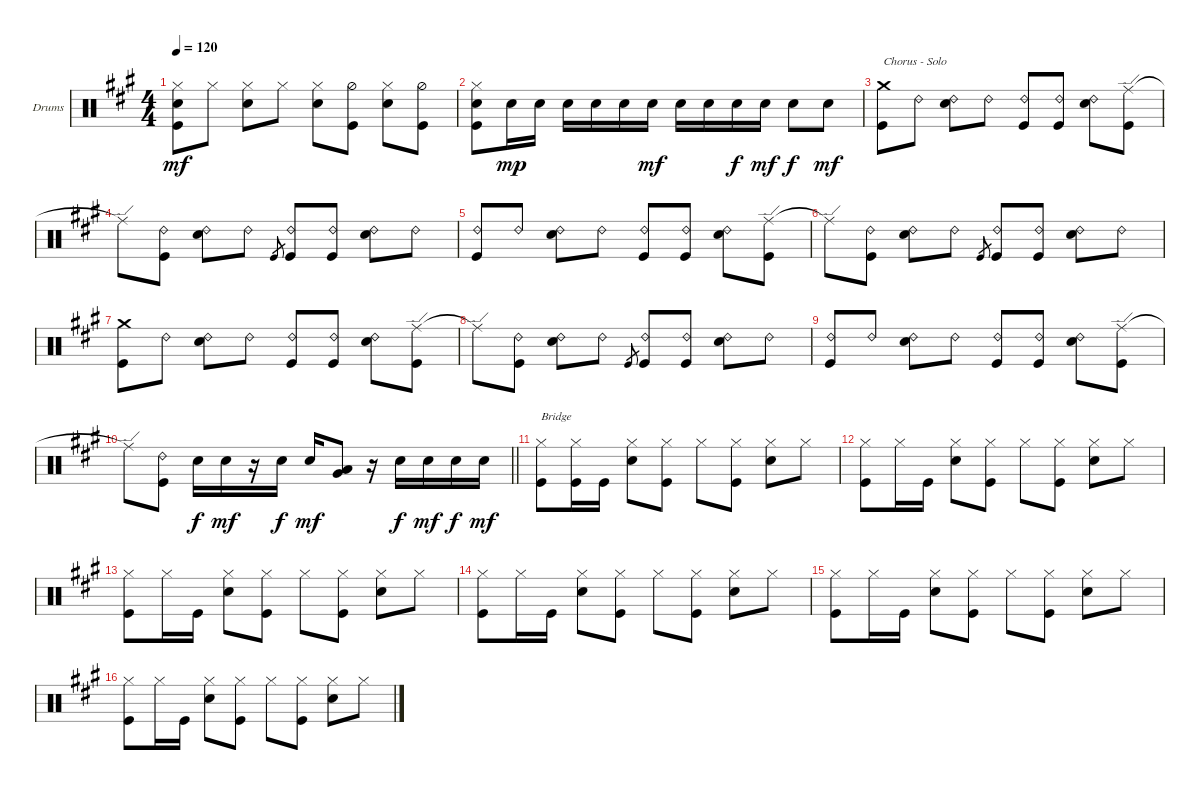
\bracketExtendMode groupsimilarinstruments
\firstSystemTrackNameOrientation horizontal
\otherSystemsTrackNameOrientation horizontal
\track ("Drumkit" "Drums") {instrument percussion}
\staff {score}
\articulation defaults
\ts (4 4)
\tempo 120
\clef neutral
\ks a
("Snare (hit) 2" "Kick (hit)" "Hi-Hat (closed)").8{dy mf} "Hi-Hat (closed)".8 ("Snare (hit) 2" "Hi-Hat (closed)").8 "Hi-Hat (closed)".8 ("Snare (hit) 2" "Hi-Hat (closed)").8 ("Kick (hit)" "Hi-Hat (half)").8 ("Snare (hit) 2" "Hi-Hat (closed)").8 ("Kick (hit)" "Hi-Hat (half)").8 |
("Snare (hit) 2" "Kick (hit)" "Hi-Hat (closed)").8 "Snare (hit) 2".16{dy mp} "Snare (hit) 2".16 "Snare (hit) 2".16 "Snare (hit) 2".16 "Snare (hit) 2".16 "Snare (hit) 2".16{dy mf} "Snare (hit) 2".16 "Snare (hit) 2".16 "Snare (hit) 2".16{dy f} "Snare (hit) 2".16{dy mf} "Snare (hit) 2".8{dy f} "Snare (hit) 2".8{dy mf} |
("Kick (hit)" "Crash medium (hit)").8{txt "Chorus - Solo"} "Ride (bell) 2".8 ("Ride (bell) 2" "Snare (hit) 2").8 "Ride (bell) 2".8 ("Ride (bell) 2" "Kick (hit)").8 ("Ride (bell) 2" "Kick (hit)").8 ("Ride (bell) 2" "Snare (hit) 2").8 ("Ride (edge)" "Kick (hit)").8 |
"Ride (edge)"{t}.8 ("Kick (hit)" "Ride (bell) 2").8 ("Snare (hit) 2" "Ride (bell) 2").8 "Ride (bell) 2".8 "Kick (hit)".8{gr} ("Kick (hit)" "Ride (bell) 2").8 ("Kick (hit)" "Ride (bell) 2").8 ("Snare (hit) 2" "Ride (bell) 2").8 "Ride (bell) 2".8 |
("Kick (hit)" "Ride (bell) 2").8 "Ride (bell) 2".8 ("Ride (bell) 2" "Snare (hit) 2").8 "Ride (bell) 2".8 ("Ride (bell) 2" "Kick (hit)").8 ("Ride (bell) 2" "Kick (hit)").8 ("Ride (bell) 2" "Snare (hit) 2").8 ("Ride (edge)" "Kick (hit)").8 |
"Ride (edge)"{t}.8 ("Kick (hit)" "Ride (bell) 2").8 ("Snare (hit) 2" "Ride (bell) 2").8 "Ride (bell) 2".8 "Kick (hit)".8{gr} ("Kick (hit)" "Ride (bell) 2").8 ("Kick (hit)" "Ride (bell) 2").8 ("Snare (hit) 2" "Ride (bell) 2").8 "Ride (bell) 2".8 |
("Kick (hit)" "Crash medium (hit)").8 "Ride (bell) 2".8 ("Ride (bell) 2" "Snare (hit) 2").8 "Ride (bell) 2".8 ("Ride (bell) 2" "Kick (hit)").8 ("Ride (bell) 2" "Kick (hit)").8 ("Ride (bell) 2" "Snare (hit) 2").8 ("Ride (edge)" "Kick (hit)").8 |
"Ride (edge)"{t}.8 ("Kick (hit)" "Ride (bell) 2").8 ("Snare (hit) 2" "Ride (bell) 2").8 "Ride (bell) 2".8 "Kick (hit)".8{gr} ("Kick (hit)" "Ride (bell) 2").8 ("Kick (hit)" "Ride (bell) 2").8 ("Snare (hit) 2" "Ride (bell) 2").8 "Ride (bell) 2".8 |
("Kick (hit)" "Ride (bell) 2").8 "Ride (bell) 2".8 ("Ride (bell) 2" "Snare (hit) 2").8 "Ride (bell) 2".8 ("Ride (bell) 2" "Kick (hit)").8 ("Ride (bell) 2" "Kick (hit)").8 ("Ride (bell) 2" "Snare (hit) 2").8 ("Ride (edge)" "Kick (hit)").8 |
\barLineRight lightlight "Ride (edge)"{t}.8
("Kick (hit)" "Ride (bell) 2").8 "Snare (hit) 2".16{dy f} "Snare (hit) 2".16{dy mf} r.16 "Snare (hit) 2".16{dy f} "Snare (hit) 2".16{dy mf} ("Very Low Tom (hit)" "Low Tom (hit)").8 r.16 "Snare (hit) 2".16{dy f} "Snare (hit) 2".16{dy mf} "Snare (hit) 2".16{dy f} "Snare (hit) 2".16{dy mf} |
("Kick (hit)" "Hi-Hat (closed)").8{txt "Bridge"} ("Hi-Hat (closed)" "Kick (hit)").16 "Kick (hit)".16 ("Snare (hit) 2" "Hi-Hat (closed)").8 ("Kick (hit)" "Hi-Hat (closed)").8 "Hi-Hat (closed)".8 ("Hi-Hat (closed)" "Kick (hit)").8 ("Hi-Hat (closed)" "Snare (hit) 2").8 "Hi-Hat (closed)".8 |
("Kick (hit)" "Hi-Hat (closed)").8 "Hi-Hat (closed)".16 "Kick (hit)".16 ("Snare (hit) 2" "Hi-Hat (closed)").8 ("Kick (hit)" "Hi-Hat (closed)").8 "Hi-Hat (closed)".8 ("Hi-Hat (closed)" "Kick (hit)").8 ("Hi-Hat (closed)" "Snare (hit) 2").8 "Hi-Hat (closed)".8 |
("Kick (hit)" "Hi-Hat (closed)").8 "Hi-Hat (closed)".16 "Kick (hit)".16 ("Snare (hit) 2" "Hi-Hat (closed)").8 ("Kick (hit)" "Hi-Hat (closed)").8 "Hi-Hat (closed)".8 ("Hi-Hat (closed)" "Kick (hit)").8 ("Hi-Hat (closed)" "Snare (hit) 2").8 "Hi-Hat (closed)".8 |
("Kick (hit)" "Hi-Hat (closed)").8 "Hi-Hat (closed)".16 "Kick (hit)".16 ("Snare (hit) 2" "Hi-Hat (closed)").8 ("Kick (hit)" "Hi-Hat (closed)").8 "Hi-Hat (closed)".8 ("Hi-Hat (closed)" "Kick (hit)").8 ("Hi-Hat (closed)" "Snare (hit) 2").8 "Hi-Hat (closed)".8 |
("Kick (hit)" "Hi-Hat (closed)").8 "Hi-Hat (closed)".16 "Kick (hit)".16 ("Snare (hit) 2" "Hi-Hat (closed)").8 ("Kick (hit)" "Hi-Hat (closed)").8 "Hi-Hat (closed)".8 ("Hi-Hat (closed)" "Kick (hit)").8 ("Hi-Hat (closed)" "Snare (hit) 2").8 "Hi-Hat (closed)".8 |
("Kick (hit)" "Hi-Hat (closed)").8 "Hi-Hat (closed)".16 "Kick (hit)".16 ("Snare (hit) 2" "Hi-Hat (closed)").8 ("Kick (hit)" "Hi-Hat (closed)").8 "Hi-Hat (closed)".8 ("Hi-Hat (closed)" "Kick (hit)").8 ("Hi-Hat (closed)" "Snare (hit) 2").8 "Hi-Hat (closed)".8
